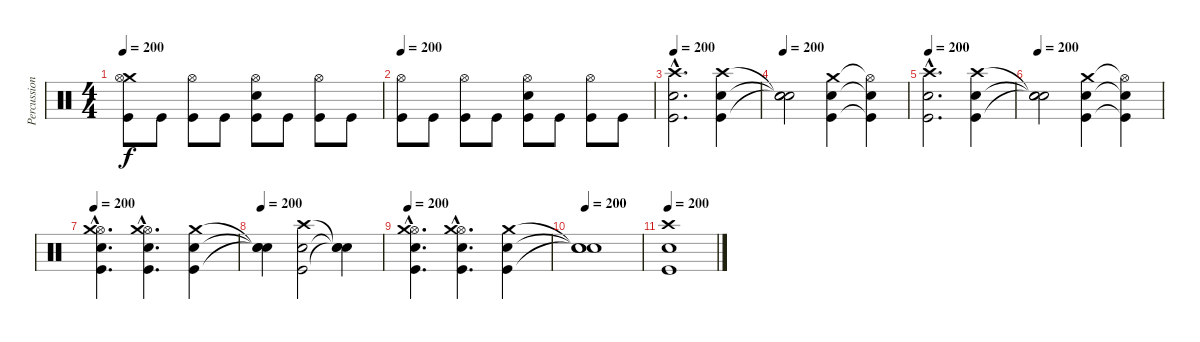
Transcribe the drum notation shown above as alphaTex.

\track ("Percussion" "Percussion") {instrument percussion}
\staff {score}
\articulation defaults
\ts (4 4)
\tempo 200
\clef neutral
\ks c
("Crash medium (hit)" "Hi-Hat (open)" "Kick (hit)").8{dy f} "Kick (hit)".8 ("Hi-Hat (open)" "Kick (hit)").8 "Kick (hit)".8 ("Electric Snare (hit)" "Hi-Hat (open)" "Kick (hit)").8 "Kick (hit)".8 ("Hi-Hat (open)" "Kick (hit)").8 "Kick (hit)".8 |
\tempo 200
("Hi-Hat (open)" "Kick (hit)").8 "Kick (hit)".8 ("Hi-Hat (open)" "Kick (hit)").8 "Kick (hit)".8 ("Electric Snare (hit)" "Hi-Hat (open)" "Kick (hit)").8 "Kick (hit)".8 ("Hi-Hat (open)" "Kick (hit)").8 "Kick (hit)".8 |
\tempo 200
("Crash high (hit)"{hac} "Electric Snare (hit)"{hac} "Kick (hit)"{hac}).2{d} ("Crash high (hit)" "Electric Snare (hit)" "Kick (hit)").4 |
\tempo 200
("Snare (hit)"{t} "Snare (hit)"{t} "Snare (hit)"{t}).2 ("Crash medium (hit)" "Electric Snare (hit)" "Kick (hit)").4 ("Hi-Hat (open)"{t} "Electric Snare (hit)"{t} "Kick (hit)"{t}).4 |
\tempo 200
("Crash high (hit)"{hac} "Electric Snare (hit)"{hac} "Kick (hit)"{hac}).2{d} ("Crash high (hit)" "Electric Snare (hit)" "Kick (hit)").4 |
\tempo 200
("Snare (hit)"{t} "Snare (hit)"{t} "Snare (hit)"{t}).2 ("Crash medium (hit)" "Electric Snare (hit)" "Kick (hit)").4 ("Hi-Hat (open)"{t} "Electric Snare (hit)"{t} "Kick (hit)"{t}).4 |
\tempo 200
("Hi-Hat (open)"{hac} "Crash medium (hit)"{hac} "Electric Snare (hit)"{hac} "Kick (hit)"{hac}).4{d} ("Hi-Hat (open)"{hac} "Crash medium (hit)"{hac} "Electric Snare (hit)"{hac} "Kick (hit)"{hac}).4{d} ("Crash medium (hit)" "Electric Snare (hit)" "Kick (hit)").4 |
\tempo 200
("Snare (hit)"{t} "Snare (hit)"{t} "Snare (hit)"{t}).4 ("Crash high (hit)" "Electric Snare (hit)" "Kick (hit)").2 ("Snare (hit)"{t} "Snare (hit)"{t} "Snare (hit)"{t}).4 |
\tempo 200
("Hi-Hat (open)"{hac} "Crash medium (hit)"{hac} "Electric Snare (hit)"{hac} "Kick (hit)"{hac}).4{d} ("Hi-Hat (open)"{hac} "Crash medium (hit)"{hac} "Electric Snare (hit)"{hac} "Kick (hit)"{hac}).4{d} ("Crash medium (hit)" "Electric Snare (hit)" "Kick (hit)").4 |
\tempo 200
("Snare (hit)"{t} "Snare (hit)"{t} "Snare (hit)"{t}).1 |
\tempo 200
("Crash high (hit)" "Electric Snare (hit)" "Kick (hit)").1
